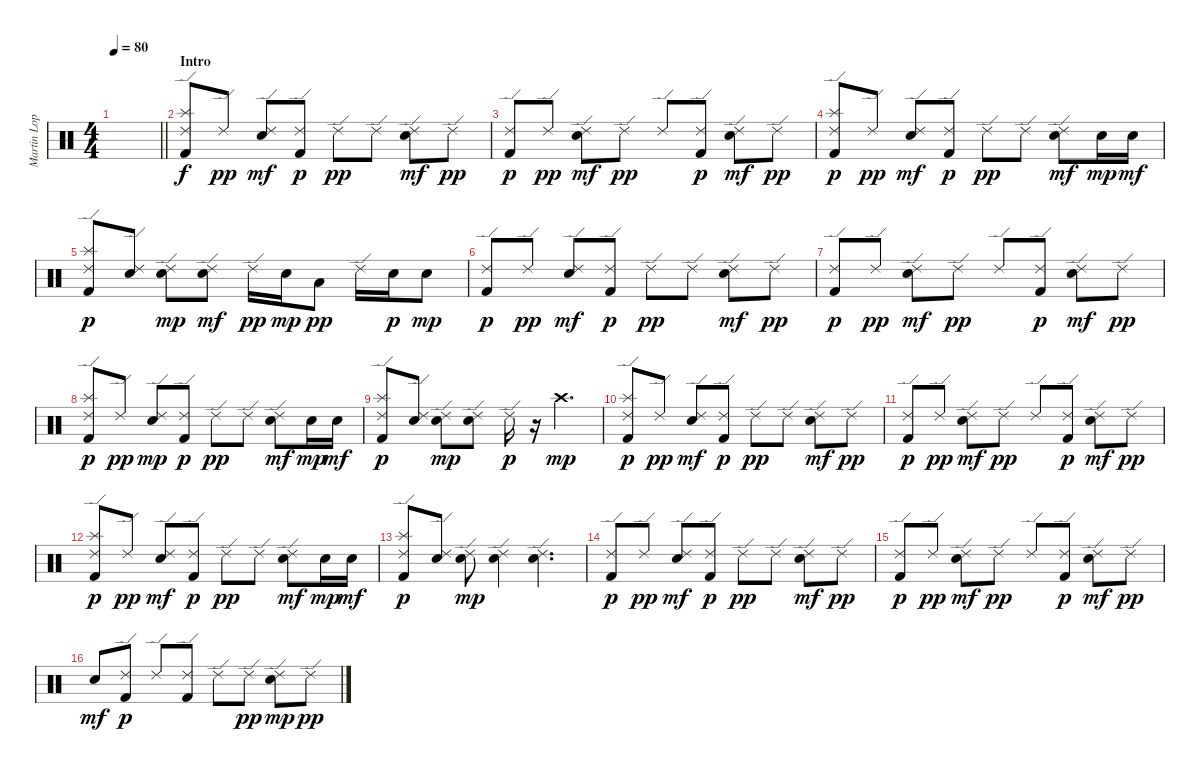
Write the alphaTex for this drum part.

\track ("Martin Lopez" "Martin Lop") {instrument percussion}
\staff {score}
\articulation defaults
\ts (4 4)
\tempo 80
\clef neutral
\barLineRight lightlight
\ks c
|
\section ("" "Intro")
("Ride (edge) 2" "Splash (hit)" "Kick (hit) 2").8 "Ride (edge) 2".8{dy pp} ("Ride (edge) 2" "Snare (hit) 2").8{dy mf} ("Ride (edge) 2" "Kick (hit) 2").8{dy p} "Ride (edge) 2".8{dy pp} "Ride (edge) 2".8 ("Ride (edge) 2" "Snare (hit) 2").8{dy mf} "Ride (edge) 2".8{dy pp} |
("Ride (edge) 2" "Kick (hit) 2").8{dy p} "Ride (edge) 2".8{dy pp} ("Ride (edge) 2" "Snare (hit) 2").8{dy mf} "Ride (edge) 2".8{dy pp} "Ride (edge) 2".8 ("Ride (edge) 2" "Kick (hit) 2").8{dy p} ("Ride (edge) 2" "Snare (hit) 2").8{dy mf} "Ride (edge) 2".8{dy pp} |
("Ride (edge) 2" "Splash (hit)" "Kick (hit) 2").8{dy p} "Ride (edge) 2".8{dy pp} ("Ride (edge) 2" "Snare (hit) 2").8{dy mf} ("Ride (edge) 2" "Kick (hit) 2").8{dy p} "Ride (edge) 2".8{dy pp} "Ride (edge) 2".8 ("Ride (edge) 2" "Snare (hit) 2").8{dy mf} "Snare (hit) 2".16{dy mp} "Snare (hit) 2".16{dy mf} |
("Ride (edge) 2" "Splash (hit)" "Kick (hit) 2").8{dy p} ("Ride (edge) 2" "Snare (hit) 2").8 ("Ride (edge) 2" "Snare (hit) 2").8{dy mp} ("Ride (edge) 2" "Snare (hit) 2").8{dy mf} "Ride (edge) 2".16{dy pp} "Snare (hit) 2".16{dy mp} "Low Tom (hit)".8{dy pp} "Ride (edge) 2".16 "Snare (hit) 2".16{dy p} "Snare (hit) 2".8{dy mp} |
("Ride (edge) 2" "Kick (hit) 2").8{dy p} "Ride (edge) 2".8{dy pp} ("Ride (edge) 2" "Snare (hit) 2").8{dy mf} ("Ride (edge) 2" "Kick (hit) 2").8{dy p} "Ride (edge) 2".8{dy pp} "Ride (edge) 2".8 ("Ride (edge) 2" "Snare (hit) 2").8{dy mf} "Ride (edge) 2".8{dy pp} |
("Ride (edge) 2" "Kick (hit) 2").8{dy p} "Ride (edge) 2".8{dy pp} ("Ride (edge) 2" "Snare (hit) 2").8{dy mf} "Ride (edge) 2".8{dy pp} "Ride (edge) 2".8 ("Ride (edge) 2" "Kick (hit) 2").8{dy p} ("Ride (edge) 2" "Snare (hit) 2").8{dy mf} "Ride (edge) 2".8{dy pp} |
("Ride (edge) 2" "Splash (hit)" "Kick (hit) 2").8{dy p} "Ride (edge) 2".8{dy pp} ("Ride (edge) 2" "Snare (hit) 2").8{dy mp} ("Ride (edge) 2" "Kick (hit) 2").8{dy p} "Ride (edge) 2".8{dy pp} "Ride (edge) 2".8 ("Ride (edge) 2" "Snare (hit) 2").8{dy mf} "Snare (hit) 2".16{dy mp} "Snare (hit) 2".16{dy mf} |
("Ride (edge) 2" "Splash (hit)" "Kick (hit) 2").8{dy p} ("Ride (edge) 2" "Snare (hit) 2").8 ("Ride (edge) 2" "Snare (hit) 2").8{dy mp} ("Ride (edge) 2" "Snare (hit) 2").8 "Ride (edge) 2".16{dy p} r.16{volume 1} "Crash high (hit)".4{d dy mp volume 14} |
("Ride (edge) 2" "Splash (hit)" "Kick (hit) 2").8{dy p} "Ride (edge) 2".8{dy pp} ("Ride (edge) 2" "Snare (hit) 2").8{dy mf} ("Ride (edge) 2" "Kick (hit) 2").8{dy p} "Ride (edge) 2".8{dy pp} "Ride (edge) 2".8 ("Ride (edge) 2" "Snare (hit) 2").8{dy mf} "Ride (edge) 2".8{dy pp} |
("Ride (edge) 2" "Kick (hit) 2").8{dy p} "Ride (edge) 2".8{dy pp} ("Ride (edge) 2" "Snare (hit) 2").8{dy mf} "Ride (edge) 2".8{dy pp} "Ride (edge) 2".8 ("Ride (edge) 2" "Kick (hit) 2").8{dy p} ("Ride (edge) 2" "Snare (hit) 2").8{dy mf} "Ride (edge) 2".8{dy pp} |
("Ride (edge) 2" "Splash (hit)" "Kick (hit) 2").8{dy p} "Ride (edge) 2".8{dy pp} ("Ride (edge) 2" "Snare (hit) 2").8{dy mf} ("Ride (edge) 2" "Kick (hit) 2").8{dy p} "Ride (edge) 2".8{dy pp} "Ride (edge) 2".8 ("Ride (edge) 2" "Snare (hit) 2").8{dy mf} "Snare (hit) 2".16{dy mp} "Snare (hit) 2".16{dy mf} |
("Ride (edge) 2" "Splash (hit)" "Kick (hit) 2").8{dy p} ("Ride (edge) 2" "Snare (hit) 2").8 ("Ride (edge) 2" "Snare (hit) 2").8{dy mp} ("Ride (edge) 2" "Snare (hit) 2").4 ("Ride (edge) 2" "Snare (hit) 2").4{d} |
("Ride (edge) 2" "Kick (hit) 2").8{dy p} "Ride (edge) 2".8{dy pp} ("Ride (edge) 2" "Snare (hit) 2").8{dy mf} ("Ride (edge) 2" "Kick (hit) 2").8{dy p} "Ride (edge) 2".8{dy pp} "Ride (edge) 2".8 ("Ride (edge) 2" "Snare (hit) 2").8{dy mf} "Ride (edge) 2".8{dy pp} |
("Ride (edge) 2" "Kick (hit) 2").8{dy p} "Ride (edge) 2".8{dy pp} ("Ride (edge) 2" "Snare (hit) 2").8{dy mf} "Ride (edge) 2".8{dy pp} "Ride (edge) 2".8 ("Ride (edge) 2" "Kick (hit) 2").8{dy p} ("Ride (edge) 2" "Snare (hit) 2").8{dy mf} "Ride (edge) 2".8{dy pp} |
"Snare (hit) 2".8{dy mf} ("Ride (edge) 2" "Kick (hit) 2").8{dy p} "Ride (edge) 2".8 ("Ride (edge) 2" "Kick (hit) 2").8 "Ride (edge) 2".8 "Ride (edge) 2".8{dy pp} ("Ride (edge) 2" "Snare (hit) 2").8{dy mp} "Ride (edge) 2".8{dy pp}
